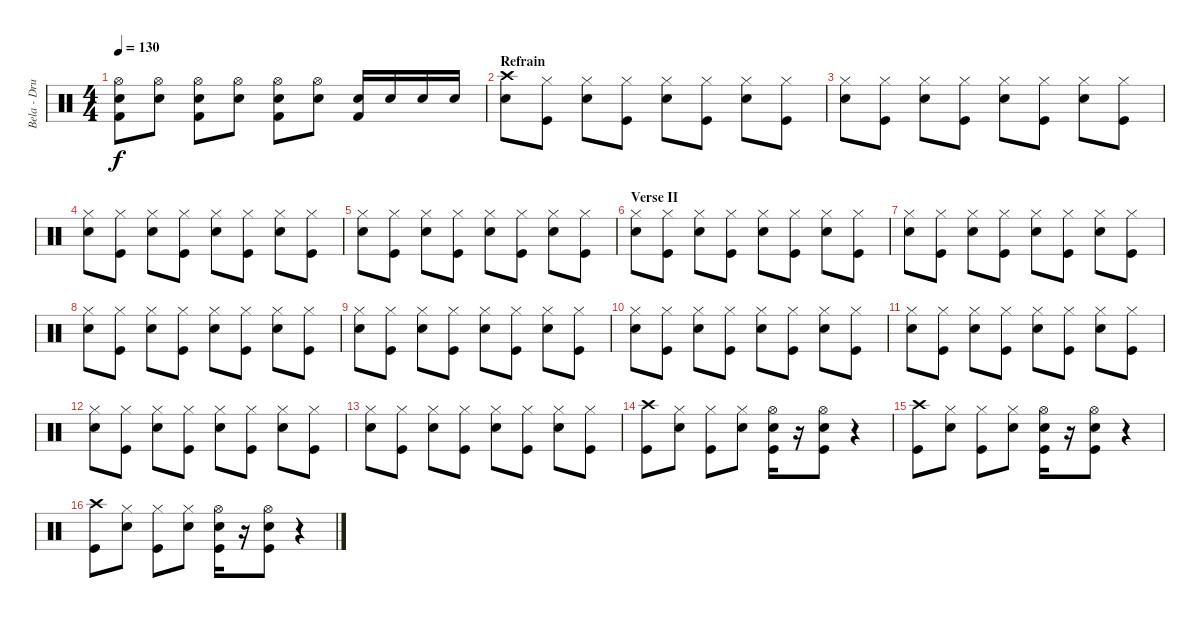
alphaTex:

\track ("Bela - Drums" "Bela - Dru") {instrument percussion}
\staff {score}
\articulation defaults
\ts (4 4)
\tempo 130
\clef neutral
\ks c
("Hi-Hat (open)" "Electric Snare (hit)" "Kick (hit) 2").8{dy f} ("Hi-Hat (open)" "Electric Snare (hit)").8 ("Hi-Hat (open)" "Electric Snare (hit)" "Kick (hit) 2").8 ("Hi-Hat (open)" "Electric Snare (hit)").8 ("Hi-Hat (open)" "Electric Snare (hit)" "Kick (hit) 2").8 ("Hi-Hat (open)" "Electric Snare (hit)").8 ("Electric Snare (hit)" "Kick (hit) 2").16 "Electric Snare (hit)".16 "Electric Snare (hit)".16 "Electric Snare (hit)".16 |
\section ("" "Refrain")
("Crash high (hit)" "Electric Snare (hit)").8 ("Hi-Hat (closed)" "Kick (hit)").8 ("Hi-Hat (closed)" "Electric Snare (hit)").8 ("Hi-Hat (closed)" "Kick (hit)").8 ("Hi-Hat (closed)" "Electric Snare (hit)").8 ("Hi-Hat (closed)" "Kick (hit)").8 ("Hi-Hat (closed)" "Electric Snare (hit)").8 ("Hi-Hat (closed)" "Kick (hit)").8 |
("Hi-Hat (closed)" "Electric Snare (hit)").8 ("Hi-Hat (closed)" "Kick (hit)").8 ("Hi-Hat (closed)" "Electric Snare (hit)").8 ("Hi-Hat (closed)" "Kick (hit)").8 ("Hi-Hat (closed)" "Electric Snare (hit)").8 ("Hi-Hat (closed)" "Kick (hit)").8 ("Hi-Hat (closed)" "Electric Snare (hit)").8 ("Hi-Hat (closed)" "Kick (hit)").8 |
("Hi-Hat (closed)" "Electric Snare (hit)").8 ("Hi-Hat (closed)" "Kick (hit)").8 ("Hi-Hat (closed)" "Electric Snare (hit)").8 ("Hi-Hat (closed)" "Kick (hit)").8 ("Hi-Hat (closed)" "Electric Snare (hit)").8 ("Hi-Hat (closed)" "Kick (hit)").8 ("Hi-Hat (closed)" "Electric Snare (hit)").8 ("Hi-Hat (closed)" "Kick (hit)").8 |
("Hi-Hat (closed)" "Electric Snare (hit)").8 ("Hi-Hat (closed)" "Kick (hit)").8 ("Hi-Hat (closed)" "Electric Snare (hit)").8 ("Hi-Hat (closed)" "Kick (hit)").8 ("Hi-Hat (closed)" "Electric Snare (hit)").8 ("Hi-Hat (closed)" "Kick (hit)").8 ("Hi-Hat (closed)" "Electric Snare (hit)").8 ("Hi-Hat (closed)" "Kick (hit)").8 |
\section ("" "Verse II")
("Hi-Hat (closed)" "Electric Snare (hit)").8 ("Hi-Hat (closed)" "Kick (hit)").8 ("Hi-Hat (closed)" "Electric Snare (hit)").8 ("Hi-Hat (closed)" "Kick (hit)").8 ("Hi-Hat (closed)" "Electric Snare (hit)").8 ("Hi-Hat (closed)" "Kick (hit)").8 ("Hi-Hat (closed)" "Electric Snare (hit)").8 ("Hi-Hat (closed)" "Kick (hit)").8 |
("Hi-Hat (closed)" "Electric Snare (hit)").8 ("Hi-Hat (closed)" "Kick (hit)").8 ("Hi-Hat (closed)" "Electric Snare (hit)").8 ("Hi-Hat (closed)" "Kick (hit)").8 ("Hi-Hat (closed)" "Electric Snare (hit)").8 ("Hi-Hat (closed)" "Kick (hit)").8 ("Hi-Hat (closed)" "Electric Snare (hit)").8 ("Hi-Hat (closed)" "Kick (hit)").8 |
("Hi-Hat (closed)" "Electric Snare (hit)").8 ("Hi-Hat (closed)" "Kick (hit)").8 ("Hi-Hat (closed)" "Electric Snare (hit)").8 ("Hi-Hat (closed)" "Kick (hit)").8 ("Hi-Hat (closed)" "Electric Snare (hit)").8 ("Hi-Hat (closed)" "Kick (hit)").8 ("Hi-Hat (closed)" "Electric Snare (hit)").8 ("Hi-Hat (closed)" "Kick (hit)").8 |
("Hi-Hat (closed)" "Electric Snare (hit)").8 ("Hi-Hat (closed)" "Kick (hit)").8 ("Hi-Hat (closed)" "Electric Snare (hit)").8 ("Hi-Hat (closed)" "Kick (hit)").8 ("Hi-Hat (closed)" "Electric Snare (hit)").8 ("Hi-Hat (closed)" "Kick (hit)").8 ("Hi-Hat (closed)" "Electric Snare (hit)").8 ("Hi-Hat (closed)" "Kick (hit)").8 |
("Hi-Hat (closed)" "Electric Snare (hit)").8 ("Hi-Hat (closed)" "Kick (hit)").8 ("Hi-Hat (closed)" "Electric Snare (hit)").8 ("Hi-Hat (closed)" "Kick (hit)").8 ("Hi-Hat (closed)" "Electric Snare (hit)").8 ("Hi-Hat (closed)" "Kick (hit)").8 ("Hi-Hat (closed)" "Electric Snare (hit)").8 ("Hi-Hat (closed)" "Kick (hit)").8 |
("Hi-Hat (closed)" "Electric Snare (hit)").8 ("Hi-Hat (closed)" "Kick (hit)").8 ("Hi-Hat (closed)" "Electric Snare (hit)").8 ("Hi-Hat (closed)" "Kick (hit)").8 ("Hi-Hat (closed)" "Electric Snare (hit)").8 ("Hi-Hat (closed)" "Kick (hit)").8 ("Hi-Hat (closed)" "Electric Snare (hit)").8 ("Hi-Hat (closed)" "Kick (hit)").8 |
("Hi-Hat (closed)" "Electric Snare (hit)").8 ("Hi-Hat (closed)" "Kick (hit)").8 ("Hi-Hat (closed)" "Electric Snare (hit)").8 ("Hi-Hat (closed)" "Kick (hit)").8 ("Hi-Hat (closed)" "Electric Snare (hit)").8 ("Hi-Hat (closed)" "Kick (hit)").8 ("Hi-Hat (closed)" "Electric Snare (hit)").8 ("Hi-Hat (closed)" "Kick (hit)").8 |
("Hi-Hat (closed)" "Electric Snare (hit)").8 ("Hi-Hat (closed)" "Kick (hit)").8 ("Hi-Hat (closed)" "Electric Snare (hit)").8 ("Hi-Hat (closed)" "Kick (hit)").8 ("Hi-Hat (closed)" "Electric Snare (hit)").8 ("Hi-Hat (closed)" "Kick (hit)").8 ("Hi-Hat (closed)" "Electric Snare (hit)").8 ("Hi-Hat (closed)" "Kick (hit)").8 |
("Crash high (hit)" "Kick (hit)").8 ("Hi-Hat (closed)" "Electric Snare (hit)").8 ("Hi-Hat (closed)" "Kick (hit)").8 ("Hi-Hat (closed)" "Electric Snare (hit)").8 ("Hi-Hat (open)" "Electric Snare (hit)" "Kick (hit)").16 r.16 ("Hi-Hat (open)" "Electric Snare (hit)" "Kick (hit)").8 r.4 |
("Crash high (hit)" "Kick (hit)").8 ("Hi-Hat (closed)" "Electric Snare (hit)").8 ("Hi-Hat (closed)" "Kick (hit)").8 ("Hi-Hat (closed)" "Electric Snare (hit)").8 ("Hi-Hat (open)" "Electric Snare (hit)" "Kick (hit)").16 r.16 ("Hi-Hat (open)" "Electric Snare (hit)" "Kick (hit)").8 r.4 |
("Crash high (hit)" "Kick (hit)").8 ("Hi-Hat (closed)" "Electric Snare (hit)").8 ("Hi-Hat (closed)" "Kick (hit)").8 ("Hi-Hat (closed)" "Electric Snare (hit)").8 ("Hi-Hat (open)" "Electric Snare (hit)" "Kick (hit)").16 r.16 ("Hi-Hat (open)" "Electric Snare (hit)" "Kick (hit)").8 r.4
